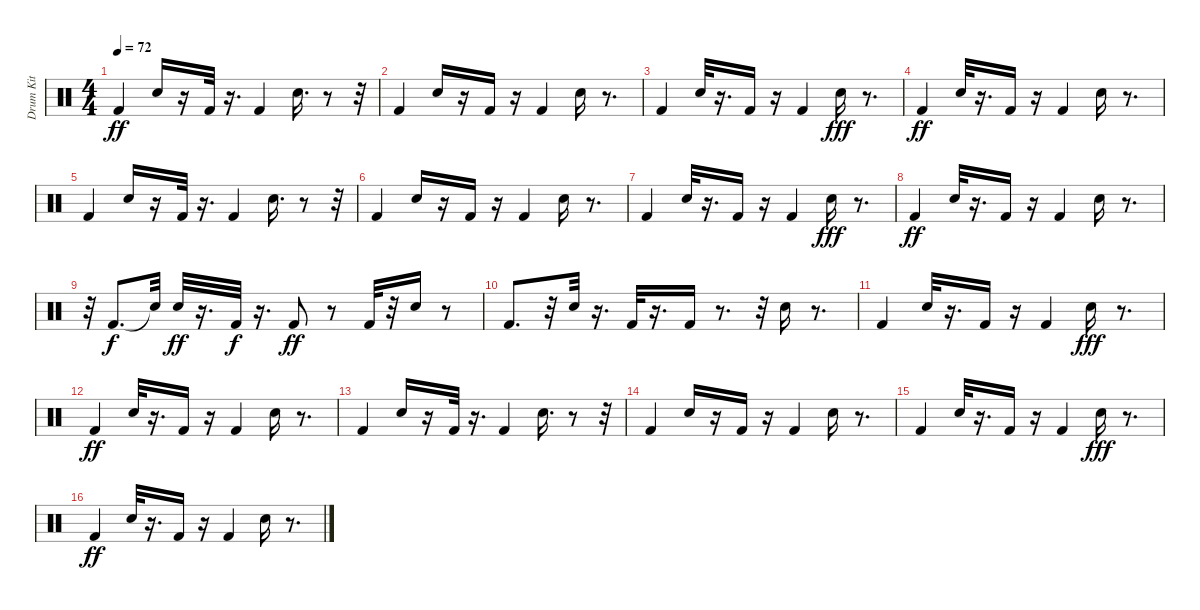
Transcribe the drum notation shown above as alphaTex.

\track ("Drum Kit" "Drum Kit") {instrument percussion}
\staff {score}
\articulation defaults
\ts (4 4)
\tempo 72
\clef neutral
\ks c "Kick (hit) 2".4{dy ff} "Electric Snare (hit)".16
r.16 "Kick (hit) 2".32 r.16{d} "Kick (hit) 2".4 "Electric Snare (hit)".16{d} r.8 r.32 |
"Kick (hit) 2".4 "Electric Snare (hit)".16 r.16 "Kick (hit) 2".16 r.16 "Kick (hit) 2".4 "Electric Snare (hit)".16 r.8{d} |
"Kick (hit) 2".4 "Electric Snare (hit)".32 r.16{d} "Kick (hit) 2".16 r.16 "Kick (hit) 2".4 "Electric Snare (hit)".16{dy fff} r.8{d} |
"Kick (hit) 2".4{dy ff} "Electric Snare (hit)".32 r.16{d} "Kick (hit) 2".16 r.16 "Kick (hit) 2".4 "Electric Snare (hit)".16 r.8{d} |
"Kick (hit) 2".4 "Electric Snare (hit)".16 r.16 "Kick (hit) 2".32 r.16{d} "Kick (hit) 2".4 "Electric Snare (hit)".16{d} r.8 r.32 |
"Kick (hit) 2".4 "Electric Snare (hit)".16 r.16 "Kick (hit) 2".16 r.16 "Kick (hit) 2".4 "Electric Snare (hit)".16 r.8{d} |
"Kick (hit) 2".4 "Electric Snare (hit)".32 r.16{d} "Kick (hit) 2".16 r.16 "Kick (hit) 2".4 "Electric Snare (hit)".16{dy fff} r.8{d} |
"Kick (hit) 2".4{dy ff} "Electric Snare (hit)".32 r.16{d} "Kick (hit) 2".16 r.16 "Kick (hit) 2".4 "Electric Snare (hit)".16 r.8{d} |
r.32 "Kick (hit) 2".8{d dy f} "Snare (hit)"{t}.32 "Electric Snare (hit)".32{dy ff} r.16{d} "Kick (hit) 2".32{dy f} r.16{d} "Kick (hit) 2".8{dy ff} r.8 "Kick (hit) 2".32 r.32 "Electric Snare (hit)".16 r.8 |
"Kick (hit) 2".8{d} r.32 "Electric Snare (hit)".32 r.16{d} "Kick (hit) 2".32 r.16{d} "Kick (hit) 2".16 r.8{d} r.32 "Electric Snare (hit)".16 r.8{d} |
"Kick (hit) 2".4 "Electric Snare (hit)".32 r.16{d} "Kick (hit) 2".16 r.16 "Kick (hit) 2".4 "Electric Snare (hit)".16{dy fff} r.8{d} |
"Kick (hit) 2".4{dy ff} "Electric Snare (hit)".32 r.16{d} "Kick (hit) 2".16 r.16 "Kick (hit) 2".4 "Electric Snare (hit)".16 r.8{d} |
"Kick (hit) 2".4 "Electric Snare (hit)".16 r.16 "Kick (hit) 2".32 r.16{d} "Kick (hit) 2".4 "Electric Snare (hit)".16{d} r.8 r.32 |
"Kick (hit) 2".4 "Electric Snare (hit)".16 r.16 "Kick (hit) 2".16 r.16 "Kick (hit) 2".4 "Electric Snare (hit)".16 r.8{d} |
"Kick (hit) 2".4 "Electric Snare (hit)".32 r.16{d} "Kick (hit) 2".16 r.16 "Kick (hit) 2".4 "Electric Snare (hit)".16{dy fff} r.8{d} |
"Kick (hit) 2".4{dy ff} "Electric Snare (hit)".32 r.16{d} "Kick (hit) 2".16 r.16 "Kick (hit) 2".4 "Electric Snare (hit)".16 r.8{d}
